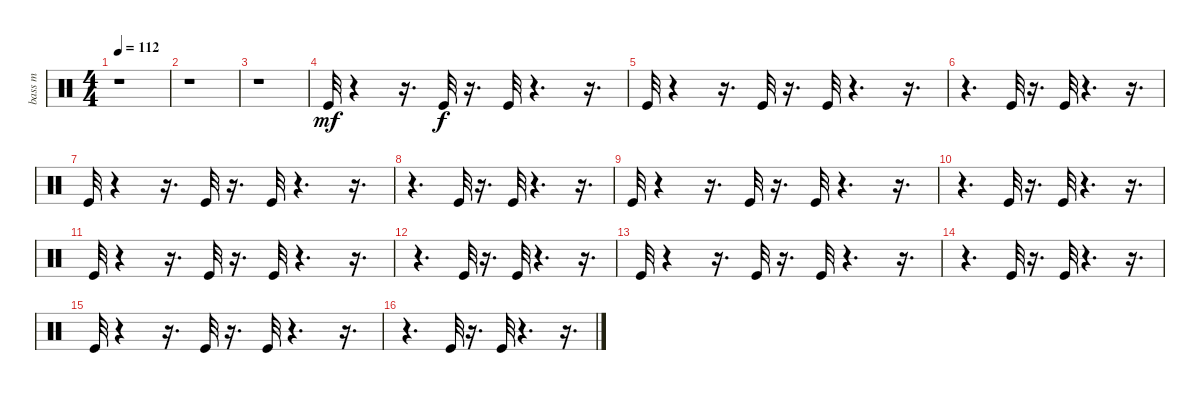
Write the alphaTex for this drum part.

\track ("bass m" "bass m") {instrument percussion}
\staff {score}
\articulation defaults
\ts (4 4)
\tempo 112
\clef neutral
\ks c
r.1{dy f} |
r.1 |
r.1 |
"Kick (hit)".32{dy mf} r.4 r.16{d} "Kick (hit)".32{dy f} r.16{d} "Kick (hit)".32 r.4{d} r.16{d} |
"Kick (hit)".32 r.4 r.16{d} "Kick (hit)".32 r.16{d} "Kick (hit)".32 r.4{d} r.16{d} |
r.4{d} "Kick (hit)".32 r.16{d} "Kick (hit)".32 r.4{d} r.16{d} |
"Kick (hit)".32 r.4 r.16{d} "Kick (hit)".32 r.16{d} "Kick (hit)".32 r.4{d} r.16{d} |
r.4{d} "Kick (hit)".32 r.16{d} "Kick (hit)".32 r.4{d} r.16{d} |
"Kick (hit)".32 r.4 r.16{d} "Kick (hit)".32 r.16{d} "Kick (hit)".32 r.4{d} r.16{d} |
r.4{d} "Kick (hit)".32 r.16{d} "Kick (hit)".32 r.4{d} r.16{d} |
"Kick (hit)".32 r.4 r.16{d} "Kick (hit)".32 r.16{d} "Kick (hit)".32 r.4{d} r.16{d} |
r.4{d} "Kick (hit)".32 r.16{d} "Kick (hit)".32 r.4{d} r.16{d} |
"Kick (hit)".32 r.4 r.16{d} "Kick (hit)".32 r.16{d} "Kick (hit)".32 r.4{d} r.16{d} |
r.4{d} "Kick (hit)".32 r.16{d} "Kick (hit)".32 r.4{d} r.16{d} |
"Kick (hit)".32 r.4 r.16{d} "Kick (hit)".32 r.16{d} "Kick (hit)".32 r.4{d} r.16{d} |
r.4{d} "Kick (hit)".32 r.16{d} "Kick (hit)".32 r.4{d} r.16{d}
